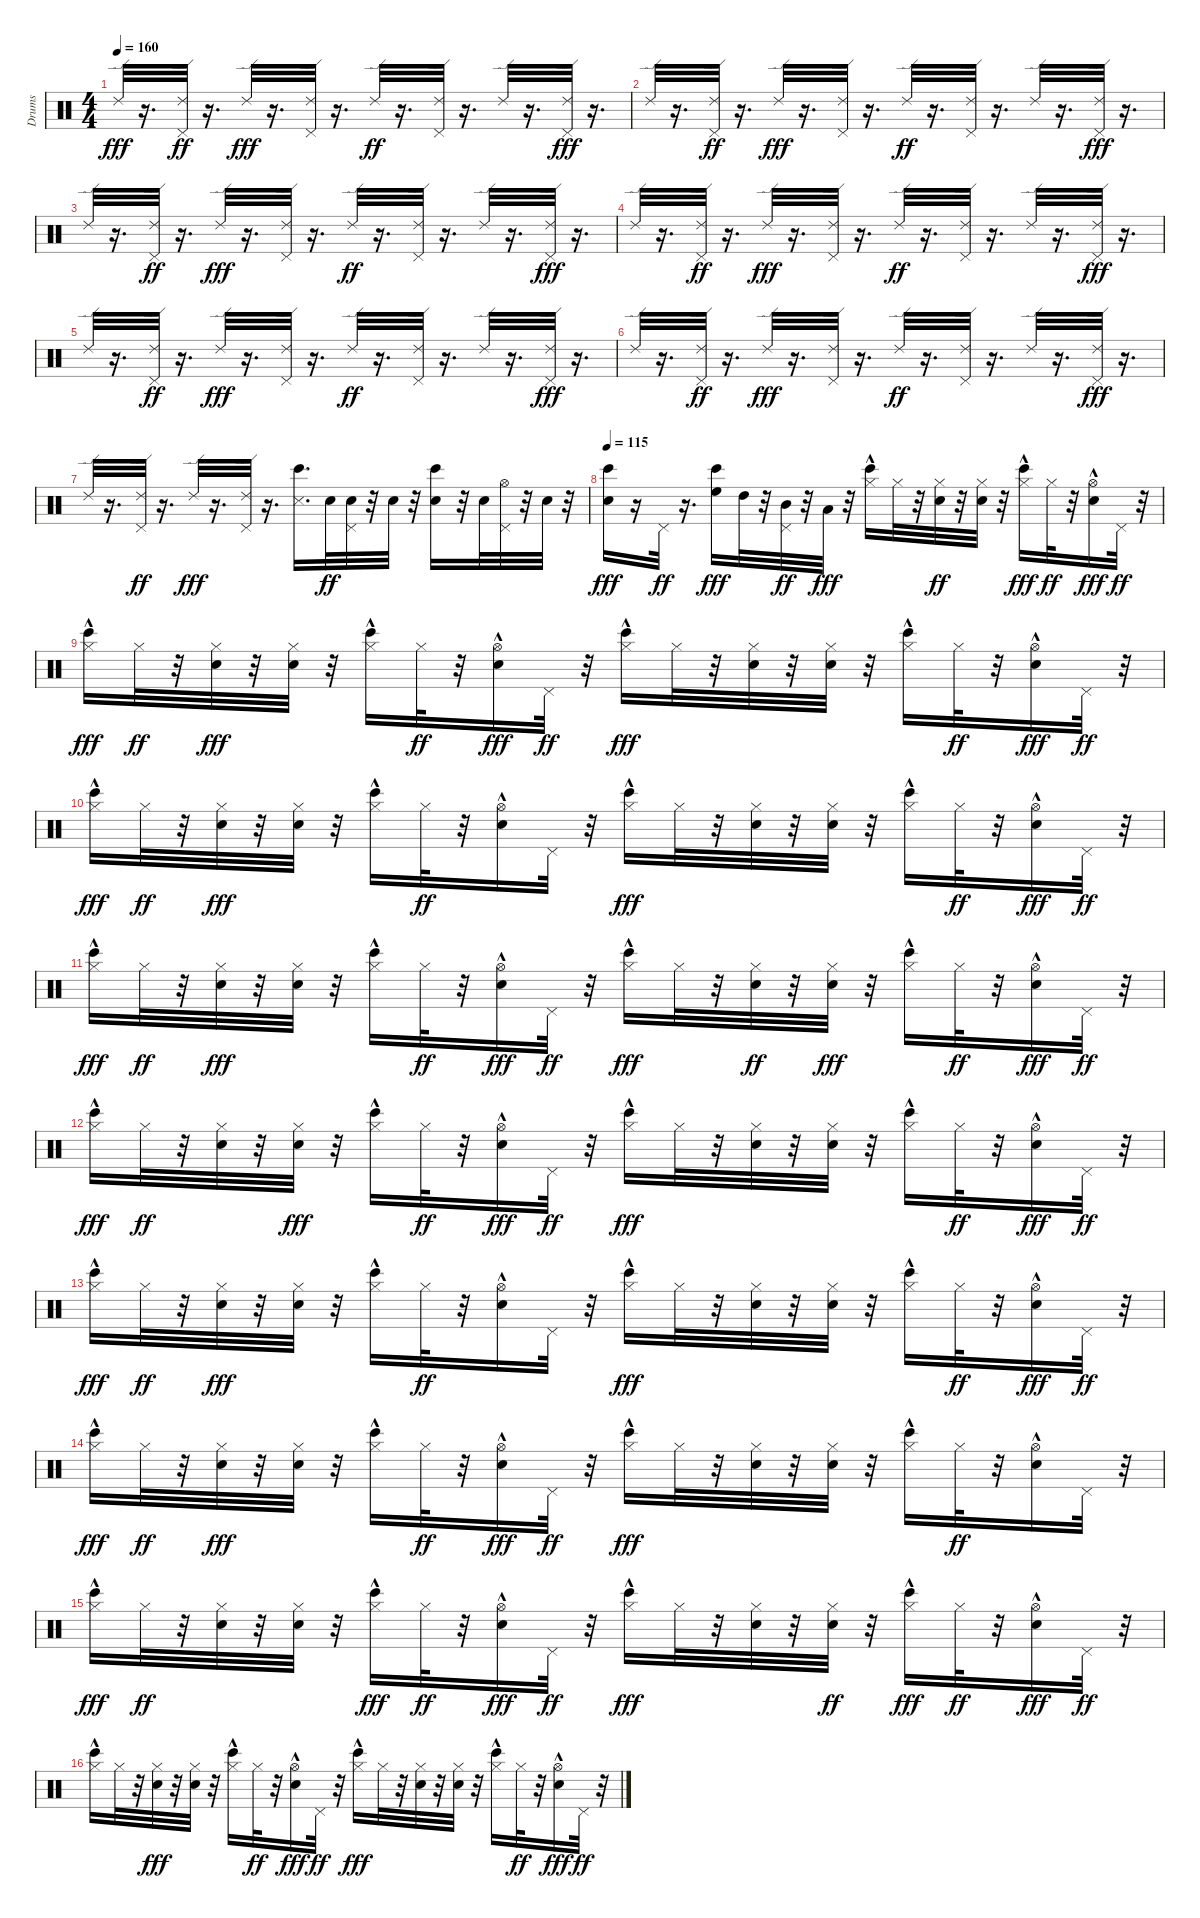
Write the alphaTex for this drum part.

\track ("Drums" "Drums") {instrument percussion}
\staff {score}
\articulation defaults
\ts (4 4)
\tempo 160
\clef neutral
\ks c "Ride (edge) 2".32{dy fff}
r.16{d} ("Pedal Hi-Hat (hit)" "Ride (edge) 2").32{dy ff} r.16{d} "Ride (edge) 2".32{dy fff} r.16{d} ("Pedal Hi-Hat (hit)" "Ride (edge) 2").32 r.16{d} "Ride (edge) 2".32{dy ff} r.16{d} ("Pedal Hi-Hat (hit)" "Ride (edge) 2").32 r.16{d} "Ride (edge) 2".32 r.16{d} ("Pedal Hi-Hat (hit)" "Ride (edge) 2").32{dy fff} r.16{d} |
"Ride (edge) 2".32 r.16{d} ("Pedal Hi-Hat (hit)" "Ride (edge) 2").32{dy ff} r.16{d} "Ride (edge) 2".32{dy fff} r.16{d} ("Pedal Hi-Hat (hit)" "Ride (edge) 2").32 r.16{d} "Ride (edge) 2".32{dy ff} r.16{d} ("Pedal Hi-Hat (hit)" "Ride (edge) 2").32 r.16{d} "Ride (edge) 2".32 r.16{d} ("Pedal Hi-Hat (hit)" "Ride (edge) 2").32{dy fff} r.16{d} |
"Ride (edge) 2".32 r.16{d} ("Pedal Hi-Hat (hit)" "Ride (edge) 2").32{dy ff} r.16{d} "Ride (edge) 2".32{dy fff} r.16{d} ("Pedal Hi-Hat (hit)" "Ride (edge) 2").32 r.16{d} "Ride (edge) 2".32{dy ff} r.16{d} ("Pedal Hi-Hat (hit)" "Ride (edge) 2").32 r.16{d} "Ride (edge) 2".32 r.16{d} ("Pedal Hi-Hat (hit)" "Ride (edge) 2").32{dy fff} r.16{d} |
"Ride (edge) 2".32 r.16{d} ("Pedal Hi-Hat (hit)" "Ride (edge) 2").32{dy ff} r.16{d} "Ride (edge) 2".32{dy fff} r.16{d} ("Pedal Hi-Hat (hit)" "Ride (edge) 2").32 r.16{d} "Ride (edge) 2".32{dy ff} r.16{d} ("Pedal Hi-Hat (hit)" "Ride (edge) 2").32 r.16{d} "Ride (edge) 2".32 r.16{d} ("Pedal Hi-Hat (hit)" "Ride (edge) 2").32{dy fff} r.16{d} |
"Ride (edge) 2".32 r.16{d} ("Pedal Hi-Hat (hit)" "Ride (edge) 2").32{dy ff} r.16{d} "Ride (edge) 2".32{dy fff} r.16{d} ("Pedal Hi-Hat (hit)" "Ride (edge) 2").32 r.16{d} "Ride (edge) 2".32{dy ff} r.16{d} ("Pedal Hi-Hat (hit)" "Ride (edge) 2").32 r.16{d} "Ride (edge) 2".32 r.16{d} ("Pedal Hi-Hat (hit)" "Ride (edge) 2").32{dy fff} r.16{d} |
"Ride (edge) 2".32 r.16{d} ("Pedal Hi-Hat (hit)" "Ride (edge) 2").32{dy ff} r.16{d} "Ride (edge) 2".32{dy fff} r.16{d} ("Pedal Hi-Hat (hit)" "Ride (edge) 2").32 r.16{d} "Ride (edge) 2".32{dy ff} r.16{d} ("Pedal Hi-Hat (hit)" "Ride (edge) 2").32 r.16{d} "Ride (edge) 2".32 r.16{d} ("Pedal Hi-Hat (hit)" "Ride (edge) 2").32{dy fff} r.16{d} |
"Ride (edge) 2".32 r.16{d} ("Pedal Hi-Hat (hit)" "Ride (edge) 2").32{dy ff} r.16{d} "Ride (edge) 2".32{dy fff} r.16{d} ("Pedal Hi-Hat (hit)" "Ride (edge) 2").32 r.16{d} ("Bongo High (hit)" "Snare (side stick) 3").16{d} "Electric Snare (hit)".32{dy ff} ("Pedal Hi-Hat (hit)" "Electric Snare (hit)").32 r.32 "Electric Snare (hit)".32 r.32 ("Bongo High (hit)" "Electric Snare (hit)").16 r.32 "Electric Snare (hit)".32 ("Hi-Hat (open)" "Pedal Hi-Hat (hit)").32 r.32 "Electric Snare (hit)".32 r.32 |
\tempo 115
("Bongo High (hit)" "Electric Snare (hit)").16{dy fff} r.16 "Pedal Hi-Hat (hit)".32{dy ff} r.16{d} ("High Floor Tom (hit)" "Bongo High (hit)").16{dy fff} "High Tom (hit)".32 r.32 ("Mid Tom (hit)" "Pedal Hi-Hat (hit)").32{dy ff} r.32 "Low Tom (hit)".32{dy fff} r.32 ("Hi-Hat (closed)" "Bongo High (hit)"{hac}).16 "Hi-Hat (closed)".32 r.32 ("Electric Snare (hit)" "Hi-Hat (closed)").32{dy ff} r.32 ("Electric Snare (hit)" "Hi-Hat (closed)").32 r.32 ("Hi-Hat (closed)" "Bongo High (hit)"{hac}).16{dy fff} "Hi-Hat (closed)".32{dy ff} r.32 ("Hi-Hat (open)" "Electric Snare (hit)"{hac}).16{dy fff} "Pedal Hi-Hat (hit)".32{dy ff} r.32 |
("Hi-Hat (closed)" "Bongo High (hit)"{hac}).16{dy fff} "Hi-Hat (closed)".32{dy ff} r.32 ("Hi-Hat (closed)" "Electric Snare (hit)").32{dy fff} r.32 ("Hi-Hat (closed)" "Electric Snare (hit)").32 r.32 ("Hi-Hat (closed)" "Bongo High (hit)"{hac}).16 "Hi-Hat (closed)".32{dy ff} r.32 ("Hi-Hat (open)" "Electric Snare (hit)"{hac}).16{dy fff} "Pedal Hi-Hat (hit)".32{dy ff} r.32 ("Hi-Hat (closed)" "Bongo High (hit)"{hac}).16{dy fff} "Hi-Hat (closed)".32 r.32 ("Hi-Hat (closed)" "Electric Snare (hit)").32 r.32 ("Hi-Hat (closed)" "Electric Snare (hit)").32 r.32 ("Hi-Hat (closed)" "Bongo High (hit)"{hac}).16 "Hi-Hat (closed)".32{dy ff} r.32 ("Hi-Hat (open)" "Electric Snare (hit)"{hac}).16{dy fff} "Pedal Hi-Hat (hit)".32{dy ff} r.32 |
("Hi-Hat (closed)" "Bongo High (hit)"{hac}).16{dy fff} "Hi-Hat (closed)".32{dy ff} r.32 ("Hi-Hat (closed)" "Electric Snare (hit)").32{dy fff} r.32 ("Hi-Hat (closed)" "Electric Snare (hit)").32 r.32 ("Hi-Hat (closed)" "Bongo High (hit)"{hac}).16 "Hi-Hat (closed)".32{dy ff} r.32 ("Electric Snare (hit)"{hac} "Hi-Hat (open)").16 "Pedal Hi-Hat (hit)".32 r.32 ("Hi-Hat (closed)" "Bongo High (hit)"{hac}).16{dy fff} "Hi-Hat (closed)".32 r.32 ("Hi-Hat (closed)" "Electric Snare (hit)").32 r.32 ("Hi-Hat (closed)" "Electric Snare (hit)").32 r.32 ("Hi-Hat (closed)" "Bongo High (hit)"{hac}).16 "Hi-Hat (closed)".32{dy ff} r.32 ("Hi-Hat (open)" "Electric Snare (hit)"{hac}).16{dy fff} "Pedal Hi-Hat (hit)".32{dy ff} r.32 |
("Hi-Hat (closed)" "Bongo High (hit)"{hac}).16{dy fff} "Hi-Hat (closed)".32{dy ff} r.32 ("Hi-Hat (closed)" "Electric Snare (hit)").32{dy fff} r.32 ("Hi-Hat (closed)" "Electric Snare (hit)").32 r.32 ("Hi-Hat (closed)" "Bongo High (hit)"{hac}).16 "Hi-Hat (closed)".32{dy ff} r.32 ("Hi-Hat (open)" "Electric Snare (hit)"{hac}).16{dy fff} "Pedal Hi-Hat (hit)".32{dy ff} r.32 ("Bongo High (hit)"{hac} "Hi-Hat (closed)").16{dy fff} "Hi-Hat (closed)".32 r.32 ("Electric Snare (hit)" "Hi-Hat (closed)").32{dy ff} r.32 ("Hi-Hat (closed)" "Electric Snare (hit)").32{dy fff} r.32 ("Hi-Hat (closed)" "Bongo High (hit)"{hac}).16 "Hi-Hat (closed)".32{dy ff} r.32 ("Hi-Hat (open)" "Electric Snare (hit)"{hac}).16{dy fff} "Pedal Hi-Hat (hit)".32{dy ff} r.32 |
("Hi-Hat (closed)" "Bongo High (hit)"{hac}).16{dy fff} "Hi-Hat (closed)".32{dy ff} r.32 ("Electric Snare (hit)" "Hi-Hat (closed)").32 r.32 ("Hi-Hat (closed)" "Electric Snare (hit)").32{dy fff} r.32 ("Hi-Hat (closed)" "Bongo High (hit)"{hac}).16 "Hi-Hat (closed)".32{dy ff} r.32 ("Hi-Hat (open)" "Electric Snare (hit)"{hac}).16{dy fff} "Pedal Hi-Hat (hit)".32{dy ff} r.32 ("Hi-Hat (closed)" "Bongo High (hit)"{hac}).16{dy fff} "Hi-Hat (closed)".32 r.32 ("Hi-Hat (closed)" "Electric Snare (hit)").32 r.32 ("Hi-Hat (closed)" "Electric Snare (hit)").32 r.32 ("Hi-Hat (closed)" "Bongo High (hit)"{hac}).16 "Hi-Hat (closed)".32{dy ff} r.32 ("Hi-Hat (open)" "Electric Snare (hit)"{hac}).16{dy fff} "Pedal Hi-Hat (hit)".32{dy ff} r.32 |
("Hi-Hat (closed)" "Bongo High (hit)"{hac}).16{dy fff} "Hi-Hat (closed)".32{dy ff} r.32 ("Hi-Hat (closed)" "Electric Snare (hit)").32{dy fff} r.32 ("Hi-Hat (closed)" "Electric Snare (hit)").32 r.32 ("Hi-Hat (closed)" "Bongo High (hit)"{hac}).16 "Hi-Hat (closed)".32{dy ff} r.32 ("Electric Snare (hit)"{hac} "Hi-Hat (open)").16 "Pedal Hi-Hat (hit)".32 r.32 ("Hi-Hat (closed)" "Bongo High (hit)"{hac}).16{dy fff} "Hi-Hat (closed)".32 r.32 ("Hi-Hat (closed)" "Electric Snare (hit)").32 r.32 ("Hi-Hat (closed)" "Electric Snare (hit)").32 r.32 ("Hi-Hat (closed)" "Bongo High (hit)"{hac}).16 "Hi-Hat (closed)".32{dy ff} r.32 ("Hi-Hat (open)" "Electric Snare (hit)"{hac}).16{dy fff} "Pedal Hi-Hat (hit)".32{dy ff} r.32 |
("Hi-Hat (closed)" "Bongo High (hit)"{hac}).16{dy fff} "Hi-Hat (closed)".32{dy ff} r.32 ("Hi-Hat (closed)" "Electric Snare (hit)").32{dy fff} r.32 ("Hi-Hat (closed)" "Electric Snare (hit)").32 r.32 ("Hi-Hat (closed)" "Bongo High (hit)"{hac}).16 "Hi-Hat (closed)".32{dy ff} r.32 ("Hi-Hat (open)" "Electric Snare (hit)"{hac}).16{dy fff} "Pedal Hi-Hat (hit)".32{dy ff} r.32 ("Hi-Hat (closed)" "Bongo High (hit)"{hac}).16{dy fff} "Hi-Hat (closed)".32 r.32 ("Hi-Hat (closed)" "Electric Snare (hit)").32 r.32 ("Hi-Hat (closed)" "Electric Snare (hit)").32 r.32 ("Hi-Hat (closed)" "Bongo High (hit)"{hac}).16 "Hi-Hat (closed)".32{dy ff} r.32 ("Electric Snare (hit)"{hac} "Hi-Hat (open)").16 "Pedal Hi-Hat (hit)".32 r.32 |
("Hi-Hat (closed)" "Bongo High (hit)"{hac}).16{dy fff} "Hi-Hat (closed)".32{dy ff} r.32 ("Electric Snare (hit)" "Hi-Hat (closed)").32 r.32 ("Electric Snare (hit)" "Hi-Hat (closed)").32 r.32 ("Hi-Hat (closed)" "Bongo High (hit)"{hac}).16{dy fff} "Hi-Hat (closed)".32{dy ff} r.32 ("Hi-Hat (open)" "Electric Snare (hit)"{hac}).16{dy fff} "Pedal Hi-Hat (hit)".32{dy ff} r.32 ("Hi-Hat (closed)" "Bongo High (hit)"{hac}).16{dy fff} "Hi-Hat (closed)".32 r.32 ("Hi-Hat (closed)" "Electric Snare (hit)").32 r.32 ("Electric Snare (hit)" "Hi-Hat (closed)").32{dy ff} r.32 ("Hi-Hat (closed)" "Bongo High (hit)"{hac}).16{dy fff} "Hi-Hat (closed)".32{dy ff} r.32 ("Hi-Hat (open)" "Electric Snare (hit)"{hac}).16{dy fff} "Pedal Hi-Hat (hit)".32{dy ff} r.32 |
("Bongo High (hit)"{hac} "Hi-Hat (closed)").16 "Hi-Hat (closed)".32 r.32 ("Hi-Hat (closed)" "Electric Snare (hit)").32{dy fff} r.32 ("Hi-Hat (closed)" "Electric Snare (hit)").32 r.32 ("Hi-Hat (closed)" "Bongo High (hit)"{hac}).16 "Hi-Hat (closed)".32{dy ff} r.32 ("Hi-Hat (open)" "Electric Snare (hit)"{hac}).16{dy fff} "Pedal Hi-Hat (hit)".32{dy ff} r.32 ("Bongo High (hit)"{hac} "Hi-Hat (closed)").16{dy fff} "Hi-Hat (closed)".32 r.32 ("Hi-Hat (closed)" "Electric Snare (hit)").32 r.32 ("Hi-Hat (closed)" "Electric Snare (hit)").32 r.32 ("Hi-Hat (closed)" "Bongo High (hit)"{hac}).16 "Hi-Hat (closed)".32{dy ff} r.32 ("Hi-Hat (open)" "Electric Snare (hit)"{hac}).16{dy fff} "Pedal Hi-Hat (hit)".32{dy ff} r.32
